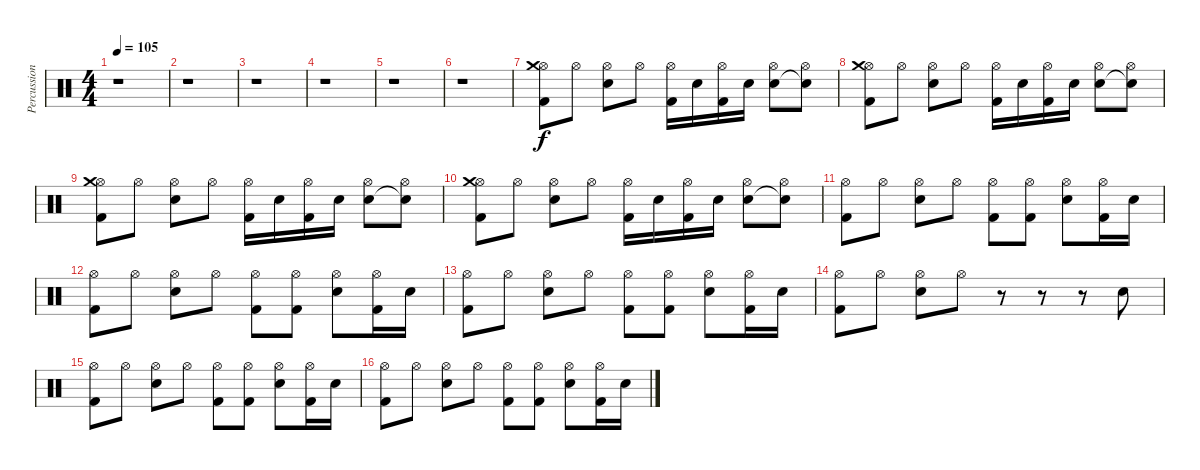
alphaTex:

\track ("Percussions" "Percussion") {instrument percussion}
\staff {score}
\articulation defaults
\ts (4 4)
\tempo 105
\clef neutral
\ks c
r.1{dy f} |
r.1 |
r.1 |
r.1 |
r.1 |
r.1 |
("Hi-Hat (open)" "Kick (hit) 2" "Crash medium (hit)").8 "Hi-Hat (open)".8 ("Hi-Hat (open)" "Electric Snare (hit)").8 "Hi-Hat (open)".8 ("Hi-Hat (open)" "Kick (hit) 2").16 "Electric Snare (hit)".16 ("Hi-Hat (open)" "Kick (hit) 2").16 "Electric Snare (hit)".16 ("Hi-Hat (open)" "Electric Snare (hit)").8 ("Hi-Hat (open)" "Snare (hit)"{t}).8 |
("Hi-Hat (open)" "Kick (hit) 2" "Crash medium (hit)").8 "Hi-Hat (open)".8 ("Hi-Hat (open)" "Electric Snare (hit)").8 "Hi-Hat (open)".8 ("Hi-Hat (open)" "Kick (hit) 2").16 "Electric Snare (hit)".16 ("Hi-Hat (open)" "Kick (hit) 2").16 "Electric Snare (hit)".16 ("Hi-Hat (open)" "Electric Snare (hit)").8 ("Hi-Hat (open)" "Snare (hit)"{t}).8 |
("Hi-Hat (open)" "Kick (hit) 2" "Crash medium (hit)").8 "Hi-Hat (open)".8 ("Hi-Hat (open)" "Electric Snare (hit)").8 "Hi-Hat (open)".8 ("Hi-Hat (open)" "Kick (hit) 2").16 "Electric Snare (hit)".16 ("Hi-Hat (open)" "Kick (hit) 2").16 "Electric Snare (hit)".16 ("Hi-Hat (open)" "Electric Snare (hit)").8 ("Hi-Hat (open)" "Snare (hit)"{t}).8 |
("Hi-Hat (open)" "Kick (hit) 2" "Crash medium (hit)").8 "Hi-Hat (open)".8 ("Hi-Hat (open)" "Electric Snare (hit)").8 "Hi-Hat (open)".8 ("Hi-Hat (open)" "Kick (hit) 2").16 "Electric Snare (hit)".16 ("Hi-Hat (open)" "Kick (hit) 2").16 "Electric Snare (hit)".16 ("Hi-Hat (open)" "Electric Snare (hit)").8 ("Hi-Hat (open)" "Snare (hit)"{t}).8 |
("Hi-Hat (open)" "Kick (hit) 2").8 "Hi-Hat (open)".8 ("Hi-Hat (open)" "Electric Snare (hit)").8 "Hi-Hat (open)".8 ("Hi-Hat (open)" "Kick (hit) 2").8 ("Hi-Hat (open)" "Kick (hit) 2").8 ("Hi-Hat (open)" "Electric Snare (hit)").8 ("Hi-Hat (open)" "Kick (hit) 2").16 "Electric Snare (hit)".16 |
("Hi-Hat (open)" "Kick (hit) 2").8 "Hi-Hat (open)".8 ("Hi-Hat (open)" "Electric Snare (hit)").8 "Hi-Hat (open)".8 ("Hi-Hat (open)" "Kick (hit) 2").8 ("Hi-Hat (open)" "Kick (hit) 2").8 ("Hi-Hat (open)" "Electric Snare (hit)").8 ("Hi-Hat (open)" "Kick (hit) 2").16 "Electric Snare (hit)".16 |
("Hi-Hat (open)" "Kick (hit) 2").8 "Hi-Hat (open)".8 ("Hi-Hat (open)" "Electric Snare (hit)").8 "Hi-Hat (open)".8 ("Hi-Hat (open)" "Kick (hit) 2").8 ("Hi-Hat (open)" "Kick (hit) 2").8 ("Hi-Hat (open)" "Electric Snare (hit)").8 ("Hi-Hat (open)" "Kick (hit) 2").16 "Electric Snare (hit)".16 |
("Hi-Hat (open)" "Kick (hit) 2").8 "Hi-Hat (open)".8 ("Hi-Hat (open)" "Electric Snare (hit)").8 "Hi-Hat (open)".8 r.8 r.8 r.8 "Electric Snare (hit)".8 |
("Hi-Hat (open)" "Kick (hit) 2").8 "Hi-Hat (open)".8 ("Hi-Hat (open)" "Electric Snare (hit)").8 "Hi-Hat (open)".8 ("Hi-Hat (open)" "Kick (hit) 2").8 ("Hi-Hat (open)" "Kick (hit) 2").8 ("Hi-Hat (open)" "Electric Snare (hit)").8 ("Hi-Hat (open)" "Kick (hit) 2").16 "Electric Snare (hit)".16 |
("Hi-Hat (open)" "Kick (hit) 2").8 "Hi-Hat (open)".8 ("Hi-Hat (open)" "Electric Snare (hit)").8 "Hi-Hat (open)".8 ("Hi-Hat (open)" "Kick (hit) 2").8 ("Hi-Hat (open)" "Kick (hit) 2").8 ("Hi-Hat (open)" "Electric Snare (hit)").8 ("Hi-Hat (open)" "Kick (hit) 2").16 "Electric Snare (hit)".16
